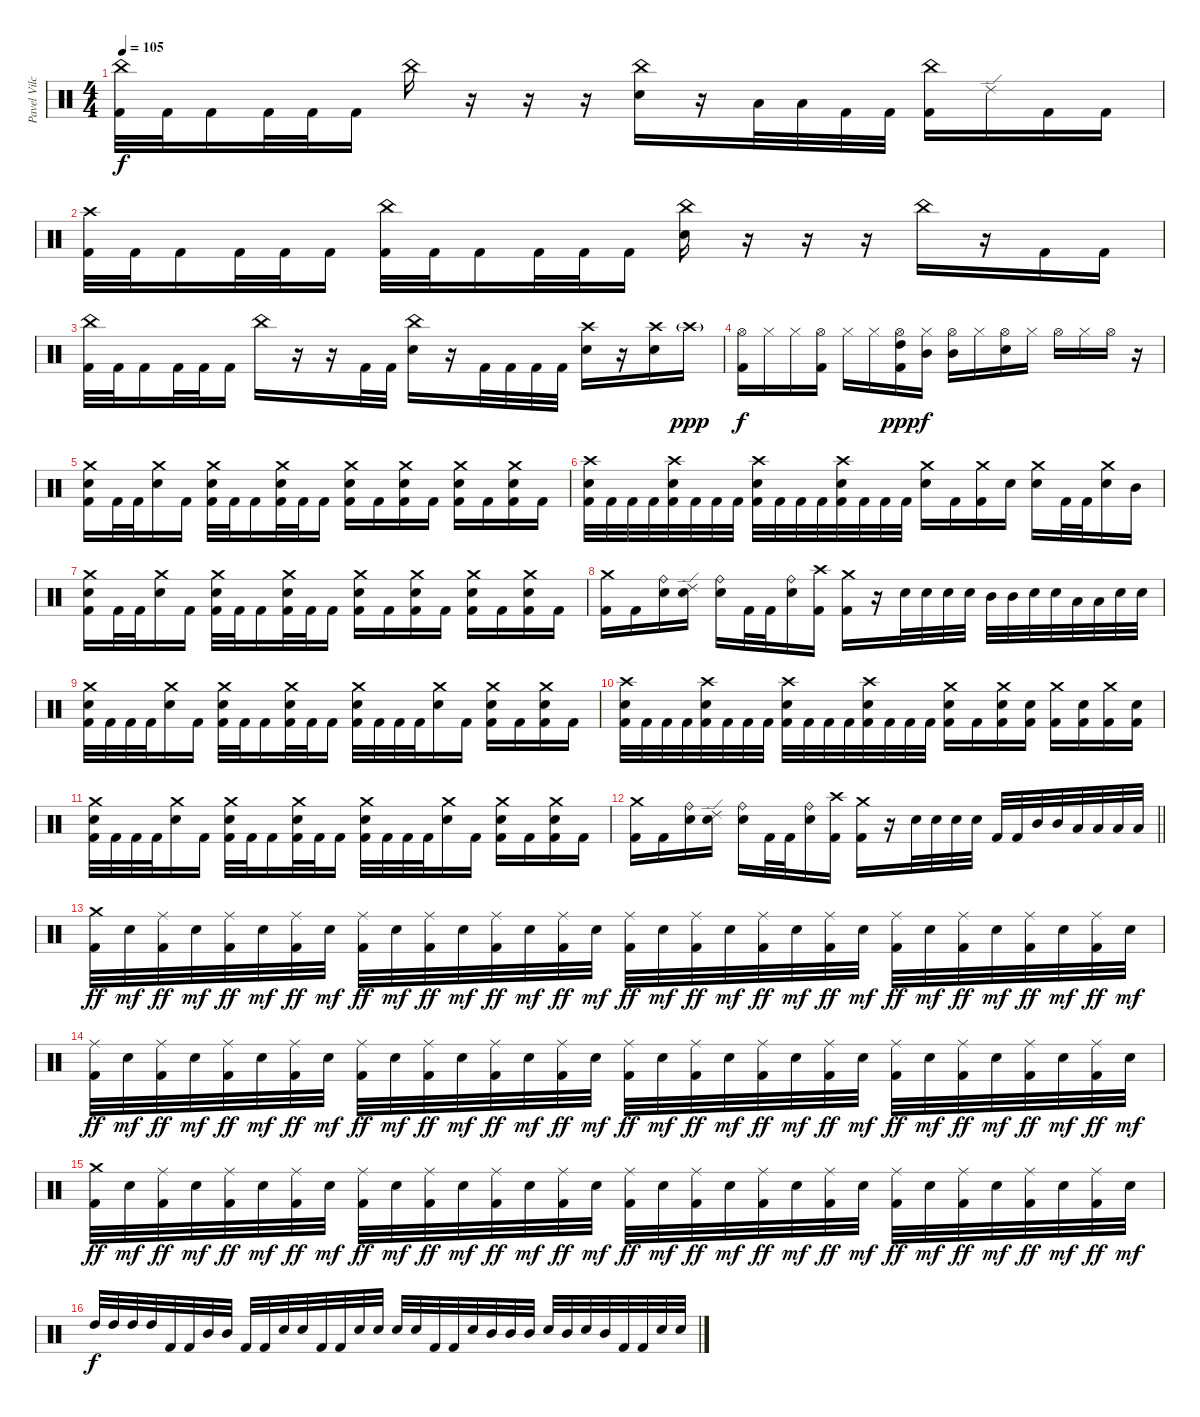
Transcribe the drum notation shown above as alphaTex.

\track ("Pavel Vilchytski " "Pavel Vilc") {instrument percussion}
\staff {score}
\articulation defaults
\ts (4 4)
\tempo 105
\clef neutral
\ks c
("China (hit)" "Kick (hit) 2").32{dy f} "Kick (hit) 2".32 "Kick (hit) 2".16 "Kick (hit) 2".32 "Kick (hit) 2".32 "Kick (hit) 2".16 "China (hit)".16 r.16 r.16 r.16 ("China (hit)" "Electric Snare (hit)").16 r.16 "Low Tom (hit)".32 "Low Tom (hit)".32 "Kick (hit) 2".32 "Kick (hit) 2".32 ("China (hit)" "Kick (hit) 2").16 "Ride (edge) 2".16 "Kick (hit) 2".16 "Kick (hit) 2".16 |
("Crash high (hit)" "Kick (hit) 2").32 "Kick (hit) 2".32 "Kick (hit) 2".16 "Kick (hit) 2".32 "Kick (hit) 2".32 "Kick (hit) 2".16 ("China (hit)" "Kick (hit) 2").32 "Kick (hit) 2".32 "Kick (hit) 2".16 "Kick (hit) 2".32 "Kick (hit) 2".32 "Kick (hit) 2".16 ("China (hit)" "Electric Snare (hit)").16 r.16 r.16 r.16 "China (hit)".16 r.16 "Kick (hit) 2".16 "Kick (hit) 2".16 |
("China (hit)" "Kick (hit) 2").32 "Kick (hit) 2".32 "Kick (hit) 2".16 "Kick (hit) 2".32 "Kick (hit) 2".32 "Kick (hit) 2".16 "China (hit)".16 r.16 r.16 "Kick (hit) 2".32 "Kick (hit) 2".32 ("China (hit)" "Electric Snare (hit)").16 r.16 "Kick (hit) 2".32 "Kick (hit) 2".32 "Kick (hit) 2".32 "Kick (hit) 2".32 ("Crash high (hit)" "Electric Snare (hit)").16 r.16 ("Crash high (hit)" "Electric Snare (hit)").16 "Crash high (hit)"{g}.16{dy ppp} |
("Hi-Hat (open)" "Kick (hit) 2").16{dy f} "Hi-Hat (closed)".16 "Hi-Hat (closed)".16 ("Hi-Hat (open)" "Kick (hit) 2").16 "Hi-Hat (closed)".16 "Hi-Hat (closed)".16 ("Hi-Hat (open)" "High Tom (hit)" "Kick (hit) 2").16{dy ppp} ("Hi-Hat (closed)" "Mid Tom (hit)").16{dy f} ("Hi-Hat (open)" "Mid Tom (hit)").16 "Hi-Hat (closed)".16 ("Hi-Hat (open)" "Electric Snare (hit)").16 "Hi-Hat (closed)".16 "Hi-Hat (open)".16 "Hi-Hat (closed)".16 "Hi-Hat (open)".16 r.16 |
("Crash medium (hit)" "Electric Snare (hit)" "Kick (hit) 2").16 "Kick (hit) 2".32 "Kick (hit) 2".32 ("Crash medium (hit)" "Electric Snare (hit)").16 "Kick (hit) 2".16 ("Crash medium (hit)" "Electric Snare (hit)" "Kick (hit) 2").32 "Kick (hit) 2".32 "Kick (hit) 2".16 ("Crash medium (hit)" "Electric Snare (hit)" "Kick (hit) 2").32 "Kick (hit) 2".32 "Kick (hit) 2".16 ("Crash medium (hit)" "Electric Snare (hit)" "Kick (hit) 2").16 "Kick (hit) 2".16 ("Crash medium (hit)" "Electric Snare (hit)" "Kick (hit) 2").16 "Kick (hit) 2".16 ("Crash medium (hit)" "Electric Snare (hit)" "Kick (hit) 2").16 "Kick (hit) 2".16 ("Crash medium (hit)" "Electric Snare (hit)" "Kick (hit) 2").16 "Kick (hit) 2".16 |
("Crash high (hit)" "Electric Snare (hit)" "Kick (hit) 2").32 "Kick (hit) 2".32 "Kick (hit) 2".32 "Kick (hit) 2".32 ("Crash high (hit)" "Electric Snare (hit)" "Kick (hit) 2").32 "Kick (hit) 2".32 "Kick (hit) 2".32 "Kick (hit) 2".32 ("Crash high (hit)" "Electric Snare (hit)" "Kick (hit) 2").32 "Kick (hit) 2".32 "Kick (hit) 2".32 "Kick (hit) 2".32 ("Crash high (hit)" "Electric Snare (hit)" "Kick (hit) 2").32 "Kick (hit) 2".32 "Kick (hit) 2".32 "Kick (hit) 2".32 ("Crash medium (hit)" "Electric Snare (hit)").16 "Kick (hit) 2".16 ("Crash medium (hit)" "Kick (hit) 2").16 "Electric Snare (hit)".16 ("Crash medium (hit)" "Electric Snare (hit)").16 "Kick (hit) 2".32 "Kick (hit) 2".32 ("Crash medium (hit)" "Electric Snare (hit)").16 "Mid Tom (hit)".16 |
("Crash medium (hit)" "Electric Snare (hit)" "Kick (hit) 2").16 "Kick (hit) 2".32 "Kick (hit) 2".32 ("Crash medium (hit)" "Electric Snare (hit)").16 "Kick (hit) 2".16 ("Crash medium (hit)" "Electric Snare (hit)" "Kick (hit) 2").32 "Kick (hit) 2".32 "Kick (hit) 2".16 ("Crash medium (hit)" "Electric Snare (hit)" "Kick (hit) 2").32 "Kick (hit) 2".32 "Kick (hit) 2".16 ("Crash medium (hit)" "Electric Snare (hit)" "Kick (hit) 2").16 "Kick (hit) 2".16 ("Crash medium (hit)" "Electric Snare (hit)" "Kick (hit) 2").16 "Kick (hit) 2".16 ("Crash medium (hit)" "Electric Snare (hit)" "Kick (hit) 2").16 "Kick (hit) 2".16 ("Crash medium (hit)" "Electric Snare (hit)" "Kick (hit) 2").16 "Kick (hit) 2".16 |
("Crash medium (hit)" "Kick (hit) 2").16 "Kick (hit) 2".16 ("Ride (bell)" "Electric Snare (hit)").16 ("Ride (edge) 2" "Electric Snare (hit)").16 ("Ride (bell)" "Electric Snare (hit)").16 "Kick (hit) 2".32 "Kick (hit) 2".32 ("Ride (bell)" "Electric Snare (hit)").16 ("Crash high (hit)" "Kick (hit) 2").16 ("Crash medium (hit)" "Kick (hit) 2").16 r.16 "Electric Snare (hit)".32 "Electric Snare (hit)".32 "Electric Snare (hit)".32 "Electric Snare (hit)".32 "Mid Tom (hit)".32 "Mid Tom (hit)".32 "Electric Snare (hit)".32 "Electric Snare (hit)".32 "Low Tom (hit)".32 "Low Tom (hit)".32 "Electric Snare (hit)".32 "Electric Snare (hit)".32 |
("Crash medium (hit)" "Electric Snare (hit)" "Kick (hit) 2").32 "Kick (hit) 2".32 "Kick (hit) 2".32 "Kick (hit) 2".32 ("Crash medium (hit)" "Electric Snare (hit)").16 "Kick (hit) 2".16 ("Crash medium (hit)" "Electric Snare (hit)" "Kick (hit) 2").32 "Kick (hit) 2".32 "Kick (hit) 2".16 ("Crash medium (hit)" "Electric Snare (hit)" "Kick (hit) 2").32 "Kick (hit) 2".32 "Kick (hit) 2".16 ("Crash medium (hit)" "Electric Snare (hit)" "Kick (hit) 2").32 "Kick (hit) 2".32 "Kick (hit) 2".32 "Kick (hit) 2".32 ("Crash medium (hit)" "Electric Snare (hit)").16 "Kick (hit) 2".16 ("Crash medium (hit)" "Electric Snare (hit)" "Kick (hit) 2").16 "Kick (hit) 2".16 ("Crash medium (hit)" "Electric Snare (hit)" "Kick (hit) 2").16 "Kick (hit) 2".16 |
("Crash high (hit)" "Electric Snare (hit)" "Kick (hit) 2").32 "Kick (hit) 2".32 "Kick (hit) 2".32 "Kick (hit) 2".32 ("Crash high (hit)" "Electric Snare (hit)" "Kick (hit) 2").32 "Kick (hit) 2".32 "Kick (hit) 2".32 "Kick (hit) 2".32 ("Crash high (hit)" "Electric Snare (hit)" "Kick (hit) 2").32 "Kick (hit) 2".32 "Kick (hit) 2".32 "Kick (hit) 2".32 ("Crash high (hit)" "Electric Snare (hit)" "Kick (hit) 2").32 "Kick (hit) 2".32 "Kick (hit) 2".32 "Kick (hit) 2".32 ("Crash medium (hit)" "Electric Snare (hit)" "Kick (hit) 2").16 "Kick (hit) 2".16 ("Crash medium (hit)" "Electric Snare (hit)" "Kick (hit) 2").16 ("Electric Snare (hit)" "Kick (hit) 2").16 ("Crash medium (hit)" "Kick (hit) 2").16 ("Electric Snare (hit)" "Kick (hit) 2").16 ("Crash medium (hit)" "Kick (hit) 2").16 ("Electric Snare (hit)" "Kick (hit) 2").16 |
("Crash medium (hit)" "Electric Snare (hit)" "Kick (hit) 2").32 "Kick (hit) 2".32 "Kick (hit) 2".32 "Kick (hit) 2".32 ("Crash medium (hit)" "Electric Snare (hit)").16 "Kick (hit) 2".16 ("Crash medium (hit)" "Electric Snare (hit)" "Kick (hit) 2").32 "Kick (hit) 2".32 "Kick (hit) 2".16 ("Crash medium (hit)" "Electric Snare (hit)" "Kick (hit) 2").32 "Kick (hit) 2".32 "Kick (hit) 2".16 ("Crash medium (hit)" "Electric Snare (hit)" "Kick (hit) 2").32 "Kick (hit) 2".32 "Kick (hit) 2".32 "Kick (hit) 2".32 ("Crash medium (hit)" "Electric Snare (hit)").16 "Kick (hit) 2".16 ("Crash medium (hit)" "Electric Snare (hit)" "Kick (hit) 2").16 "Kick (hit) 2".16 ("Crash medium (hit)" "Electric Snare (hit)" "Kick (hit) 2").16 "Kick (hit) 2".16 |
\barLineRight lightlight
("Crash medium (hit)" "Kick (hit) 2").16 "Kick (hit) 2".16 ("Ride (bell)" "Electric Snare (hit)").16 ("Ride (edge) 2" "Electric Snare (hit)").16 ("Ride (bell)" "Electric Snare (hit)").16 "Kick (hit) 2".32 "Kick (hit) 2".32 ("Ride (bell)" "Electric Snare (hit)").16 ("Crash high (hit)" "Kick (hit) 2").16 ("Crash medium (hit)" "Kick (hit) 2").16 r.16 "Electric Snare (hit)".32 "Electric Snare (hit)".32 "Electric Snare (hit)".32 "Electric Snare (hit)".32 "Kick (hit) 2".32 "Kick (hit) 2".32 "Mid Tom (hit)".32 "Mid Tom (hit)".32 "Low Tom (hit)".32 "Low Tom (hit)".32 "Low Tom (hit)".32 "Low Tom (hit)".32 |
("Crash medium (hit)" "Kick (hit) 2").32{dy ff} "Electric Snare (hit)".32{dy mf} ("Ride (middle)" "Kick (hit) 2").32{dy ff} "Electric Snare (hit)".32{dy mf} ("Ride (middle)" "Kick (hit) 2").32{dy ff} "Electric Snare (hit)".32{dy mf} ("Ride (middle)" "Kick (hit) 2").32{dy ff} "Electric Snare (hit)".32{dy mf} ("Ride (middle)" "Kick (hit) 2").32{dy ff} "Electric Snare (hit)".32{dy mf} ("Ride (middle)" "Kick (hit) 2").32{dy ff} "Electric Snare (hit)".32{dy mf} ("Ride (middle)" "Kick (hit) 2").32{dy ff} "Electric Snare (hit)".32{dy mf} ("Ride (middle)" "Kick (hit) 2").32{dy ff} "Electric Snare (hit)".32{dy mf} ("Ride (middle)" "Kick (hit) 2").32{dy ff} "Electric Snare (hit)".32{dy mf} ("Ride (middle)" "Kick (hit) 2").32{dy ff} "Electric Snare (hit)".32{dy mf} ("Ride (middle)" "Kick (hit) 2").32{dy ff} "Electric Snare (hit)".32{dy mf} ("Ride (middle)" "Kick (hit) 2").32{dy ff} "Electric Snare (hit)".32{dy mf} ("Ride (middle)" "Kick (hit) 2").32{dy ff} "Electric Snare (hit)".32{dy mf} ("Ride (middle)" "Kick (hit) 2").32{dy ff} "Electric Snare (hit)".32{dy mf} ("Ride (middle)" "Kick (hit) 2").32{dy ff} "Electric Snare (hit)".32{dy mf} ("Ride (middle)" "Kick (hit) 2").32{dy ff} "Electric Snare (hit)".32{dy mf} |
("Ride (middle)" "Kick (hit) 2").32{dy ff} "Electric Snare (hit)".32{dy mf} ("Ride (middle)" "Kick (hit) 2").32{dy ff} "Electric Snare (hit)".32{dy mf} ("Ride (middle)" "Kick (hit) 2").32{dy ff} "Electric Snare (hit)".32{dy mf} ("Ride (middle)" "Kick (hit) 2").32{dy ff} "Electric Snare (hit)".32{dy mf} ("Ride (middle)" "Kick (hit) 2").32{dy ff} "Electric Snare (hit)".32{dy mf} ("Ride (middle)" "Kick (hit) 2").32{dy ff} "Electric Snare (hit)".32{dy mf} ("Ride (middle)" "Kick (hit) 2").32{dy ff} "Electric Snare (hit)".32{dy mf} ("Ride (middle)" "Kick (hit) 2").32{dy ff} "Electric Snare (hit)".32{dy mf} ("Ride (middle)" "Kick (hit) 2").32{dy ff} "Electric Snare (hit)".32{dy mf} ("Ride (middle)" "Kick (hit) 2").32{dy ff} "Electric Snare (hit)".32{dy mf} ("Ride (middle)" "Kick (hit) 2").32{dy ff} "Electric Snare (hit)".32{dy mf} ("Ride (middle)" "Kick (hit) 2").32{dy ff} "Electric Snare (hit)".32{dy mf} ("Ride (middle)" "Kick (hit) 2").32{dy ff} "Electric Snare (hit)".32{dy mf} ("Ride (middle)" "Kick (hit) 2").32{dy ff} "Electric Snare (hit)".32{dy mf} ("Ride (middle)" "Kick (hit) 2").32{dy ff} "Electric Snare (hit)".32{dy mf} ("Ride (middle)" "Kick (hit) 2").32{dy ff} "Electric Snare (hit)".32{dy mf} |
("Crash medium (hit)" "Kick (hit) 2").32{dy ff} "Electric Snare (hit)".32{dy mf} ("Ride (middle)" "Kick (hit) 2").32{dy ff} "Electric Snare (hit)".32{dy mf} ("Ride (middle)" "Kick (hit) 2").32{dy ff} "Electric Snare (hit)".32{dy mf} ("Ride (middle)" "Kick (hit) 2").32{dy ff} "Electric Snare (hit)".32{dy mf} ("Ride (middle)" "Kick (hit) 2").32{dy ff} "Electric Snare (hit)".32{dy mf} ("Ride (middle)" "Kick (hit) 2").32{dy ff} "Electric Snare (hit)".32{dy mf} ("Ride (middle)" "Kick (hit) 2").32{dy ff} "Electric Snare (hit)".32{dy mf} ("Ride (middle)" "Kick (hit) 2").32{dy ff} "Electric Snare (hit)".32{dy mf} ("Ride (middle)" "Kick (hit) 2").32{dy ff} "Electric Snare (hit)".32{dy mf} ("Ride (middle)" "Kick (hit) 2").32{dy ff} "Electric Snare (hit)".32{dy mf} ("Ride (middle)" "Kick (hit) 2").32{dy ff} "Electric Snare (hit)".32{dy mf} ("Ride (middle)" "Kick (hit) 2").32{dy ff} "Electric Snare (hit)".32{dy mf} ("Ride (middle)" "Kick (hit) 2").32{dy ff} "Electric Snare (hit)".32{dy mf} ("Ride (middle)" "Kick (hit) 2").32{dy ff} "Electric Snare (hit)".32{dy mf} ("Ride (middle)" "Kick (hit) 2").32{dy ff} "Electric Snare (hit)".32{dy mf} ("Ride (middle)" "Kick (hit) 2").32{dy ff} "Electric Snare (hit)".32{dy mf} |
"High Tom (hit)".32{dy f} "High Tom (hit)".32 "High Tom (hit)".32 "High Tom (hit)".32 "Kick (hit) 2".32 "Kick (hit) 2".32 "Mid Tom (hit)".32 "Mid Tom (hit)".32 "Kick (hit) 2".32 "Kick (hit) 2".32 "Electric Snare (hit)".32 "Electric Snare (hit)".32 "Kick (hit) 2".32 "Kick (hit) 2".32 "Electric Snare (hit)".32 "Electric Snare (hit)".32 "Electric Snare (hit)".32 "Electric Snare (hit)".32 "Kick (hit) 2".32 "Kick (hit) 2".32 "Electric Snare (hit)".32 "Mid Tom (hit)".32 "Mid Tom (hit)".32 "Mid Tom (hit)".32 "Electric Snare (hit)".32 "Mid Tom (hit)".32 "Electric Snare (hit)".32 "Mid Tom (hit)".32 "Kick (hit) 2".32 "Kick (hit) 2".32 "Electric Snare (hit)".32 "Electric Snare (hit)".32
